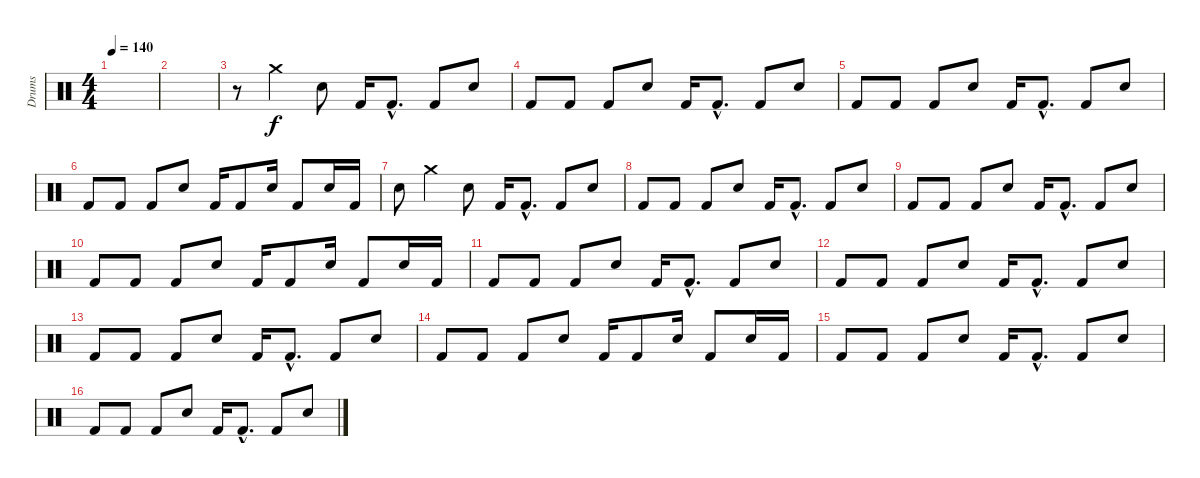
\track ("Drums" "Drums") {instrument percussion}
\staff {score}
\articulation defaults
\ts (4 4)
\tempo 140
\clef neutral
\ks c
|
|
r.8 "Crash medium (hit)".4 "Snare (hit) 2".8 "Kick (hit) 2".16 "Kick (hit) 2"{hac}.8{d} "Kick (hit) 2".8 "Snare (hit) 2".8 |
"Kick (hit) 2".8 "Kick (hit) 2".8 "Kick (hit) 2".8 "Snare (hit) 2".8 "Kick (hit) 2".16 "Kick (hit) 2"{hac}.8{d} "Kick (hit) 2".8 "Snare (hit) 2".8 |
"Kick (hit) 2".8 "Kick (hit) 2".8 "Kick (hit) 2".8 "Snare (hit) 2".8 "Kick (hit) 2".16 "Kick (hit) 2"{hac}.8{d} "Kick (hit) 2".8 "Snare (hit) 2".8 |
"Kick (hit) 2".8 "Kick (hit) 2".8 "Kick (hit) 2".8 "Snare (hit) 2".8 "Kick (hit) 2".16 "Kick (hit) 2".8 "Snare (hit) 2".16 "Kick (hit) 2".8 "Snare (hit) 2".16 "Kick (hit) 2".16 |
"Snare (hit) 2".8 "Crash medium (hit)".4 "Snare (hit) 2".8 "Kick (hit) 2".16 "Kick (hit) 2"{hac}.8{d} "Kick (hit) 2".8 "Snare (hit) 2".8 |
"Kick (hit) 2".8 "Kick (hit) 2".8 "Kick (hit) 2".8 "Snare (hit) 2".8 "Kick (hit) 2".16 "Kick (hit) 2"{hac}.8{d} "Kick (hit) 2".8 "Snare (hit) 2".8 |
"Kick (hit) 2".8 "Kick (hit) 2".8 "Kick (hit) 2".8 "Snare (hit) 2".8 "Kick (hit) 2".16 "Kick (hit) 2"{hac}.8{d} "Kick (hit) 2".8 "Snare (hit) 2".8 |
"Kick (hit) 2".8 "Kick (hit) 2".8 "Kick (hit) 2".8 "Snare (hit) 2".8 "Kick (hit) 2".16 "Kick (hit) 2".8 "Snare (hit) 2".16 "Kick (hit) 2".8 "Snare (hit) 2".16 "Kick (hit) 2".16 |
"Kick (hit) 2".8 "Kick (hit) 2".8 "Kick (hit) 2".8 "Snare (hit) 2".8 "Kick (hit) 2".16 "Kick (hit) 2"{hac}.8{d} "Kick (hit) 2".8 "Snare (hit) 2".8 |
"Kick (hit) 2".8 "Kick (hit) 2".8 "Kick (hit) 2".8 "Snare (hit) 2".8 "Kick (hit) 2".16 "Kick (hit) 2"{hac}.8{d} "Kick (hit) 2".8 "Snare (hit) 2".8 |
"Kick (hit) 2".8 "Kick (hit) 2".8 "Kick (hit) 2".8 "Snare (hit) 2".8 "Kick (hit) 2".16 "Kick (hit) 2"{hac}.8{d} "Kick (hit) 2".8 "Snare (hit) 2".8 |
"Kick (hit) 2".8 "Kick (hit) 2".8 "Kick (hit) 2".8 "Snare (hit) 2".8 "Kick (hit) 2".16 "Kick (hit) 2".8 "Snare (hit) 2".16 "Kick (hit) 2".8 "Snare (hit) 2".16 "Kick (hit) 2".16 |
"Kick (hit) 2".8 "Kick (hit) 2".8 "Kick (hit) 2".8 "Snare (hit) 2".8 "Kick (hit) 2".16 "Kick (hit) 2"{hac}.8{d} "Kick (hit) 2".8 "Snare (hit) 2".8 |
"Kick (hit) 2".8 "Kick (hit) 2".8 "Kick (hit) 2".8 "Snare (hit) 2".8 "Kick (hit) 2".16 "Kick (hit) 2"{hac}.8{d} "Kick (hit) 2".8 "Snare (hit) 2".8
